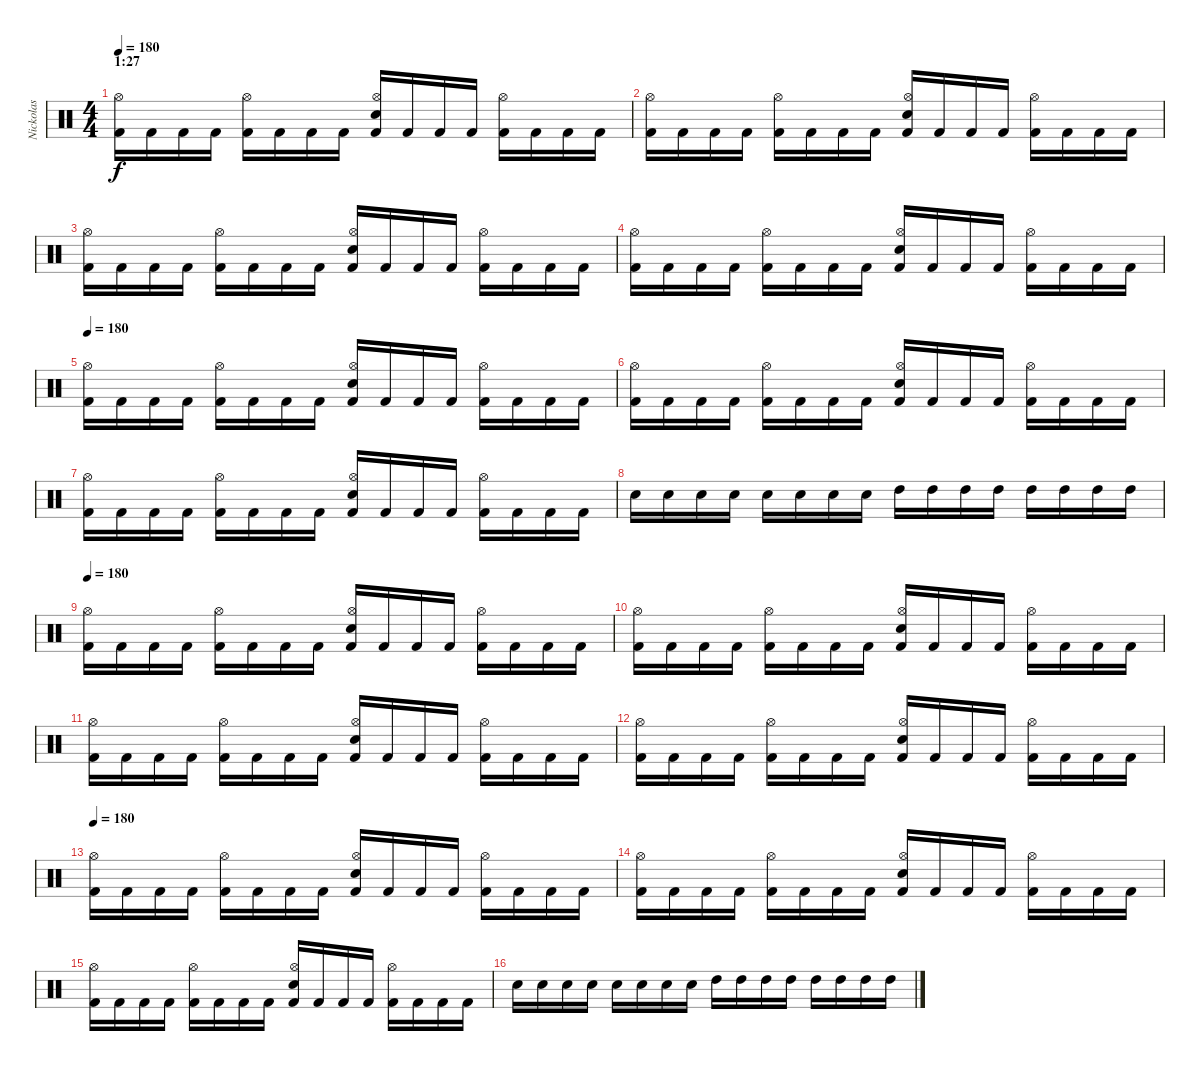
\track ("Nickolas " "Nickolas ") {instrument percussion}
\staff {score}
\articulation defaults
\ts (4 4)
\section ("" "1:27")
\tempo 180
\clef neutral
\ks c
("Kick (hit) 2" "Hi-Hat (open)").16{dy f} "Kick (hit) 2".16 "Kick (hit) 2".16 "Kick (hit) 2".16 ("Kick (hit) 2" "Hi-Hat (open)").16 "Kick (hit) 2".16 "Kick (hit) 2".16 "Kick (hit) 2".16 ("Kick (hit) 2" "Snare (hit) 2" "Hi-Hat (open)").16 "Kick (hit) 2".16 "Kick (hit) 2".16 "Kick (hit) 2".16 ("Kick (hit) 2" "Hi-Hat (open)").16 "Kick (hit) 2".16 "Kick (hit) 2".16 "Kick (hit) 2".16 |
("Kick (hit) 2" "Hi-Hat (open)").16 "Kick (hit) 2".16 "Kick (hit) 2".16 "Kick (hit) 2".16 ("Kick (hit) 2" "Hi-Hat (open)").16 "Kick (hit) 2".16 "Kick (hit) 2".16 "Kick (hit) 2".16 ("Kick (hit) 2" "Snare (hit) 2" "Hi-Hat (open)").16 "Kick (hit) 2".16 "Kick (hit) 2".16 "Kick (hit) 2".16 ("Kick (hit) 2" "Hi-Hat (open)").16 "Kick (hit) 2".16 "Kick (hit) 2".16 "Kick (hit) 2".16 |
("Kick (hit) 2" "Hi-Hat (open)").16 "Kick (hit) 2".16 "Kick (hit) 2".16 "Kick (hit) 2".16 ("Kick (hit) 2" "Hi-Hat (open)").16 "Kick (hit) 2".16 "Kick (hit) 2".16 "Kick (hit) 2".16 ("Kick (hit) 2" "Snare (hit) 2" "Hi-Hat (open)").16 "Kick (hit) 2".16 "Kick (hit) 2".16 "Kick (hit) 2".16 ("Kick (hit) 2" "Hi-Hat (open)").16 "Kick (hit) 2".16 "Kick (hit) 2".16 "Kick (hit) 2".16 |
("Kick (hit) 2" "Hi-Hat (open)").16 "Kick (hit) 2".16 "Kick (hit) 2".16 "Kick (hit) 2".16 ("Kick (hit) 2" "Hi-Hat (open)").16 "Kick (hit) 2".16 "Kick (hit) 2".16 "Kick (hit) 2".16 ("Kick (hit) 2" "Snare (hit) 2" "Hi-Hat (open)").16 "Kick (hit) 2".16 "Kick (hit) 2".16 "Kick (hit) 2".16 ("Kick (hit) 2" "Hi-Hat (open)").16 "Kick (hit) 2".16 "Kick (hit) 2".16 "Kick (hit) 2".16 |
\tempo 180
("Kick (hit) 2" "Hi-Hat (open)").16 "Kick (hit) 2".16 "Kick (hit) 2".16 "Kick (hit) 2".16 ("Kick (hit) 2" "Hi-Hat (open)").16 "Kick (hit) 2".16 "Kick (hit) 2".16 "Kick (hit) 2".16 ("Kick (hit) 2" "Snare (hit) 2" "Hi-Hat (open)").16 "Kick (hit) 2".16 "Kick (hit) 2".16 "Kick (hit) 2".16 ("Kick (hit) 2" "Hi-Hat (open)").16 "Kick (hit) 2".16 "Kick (hit) 2".16 "Kick (hit) 2".16 |
("Kick (hit) 2" "Hi-Hat (open)").16 "Kick (hit) 2".16 "Kick (hit) 2".16 "Kick (hit) 2".16 ("Kick (hit) 2" "Hi-Hat (open)").16 "Kick (hit) 2".16 "Kick (hit) 2".16 "Kick (hit) 2".16 ("Kick (hit) 2" "Snare (hit) 2" "Hi-Hat (open)").16 "Kick (hit) 2".16 "Kick (hit) 2".16 "Kick (hit) 2".16 ("Kick (hit) 2" "Hi-Hat (open)").16 "Kick (hit) 2".16 "Kick (hit) 2".16 "Kick (hit) 2".16 |
("Kick (hit) 2" "Hi-Hat (open)").16 "Kick (hit) 2".16 "Kick (hit) 2".16 "Kick (hit) 2".16 ("Kick (hit) 2" "Hi-Hat (open)").16 "Kick (hit) 2".16 "Kick (hit) 2".16 "Kick (hit) 2".16 ("Kick (hit) 2" "Snare (hit) 2" "Hi-Hat (open)").16 "Kick (hit) 2".16 "Kick (hit) 2".16 "Kick (hit) 2".16 ("Kick (hit) 2" "Hi-Hat (open)").16 "Kick (hit) 2".16 "Kick (hit) 2".16 "Kick (hit) 2".16 |
"Snare (hit) 2".16 "Snare (hit) 2".16 "Snare (hit) 2".16 "Snare (hit) 2".16 "Snare (hit) 2".16 "Snare (hit) 2".16 "Snare (hit) 2".16 "Snare (hit) 2".16 "High Tom (hit)".16 "High Tom (hit)".16 "High Tom (hit)".16 "High Tom (hit)".16 "High Tom (hit)".16 "High Tom (hit)".16 "High Tom (hit)".16 "High Tom (hit)".16 |
\tempo 180
("Kick (hit) 2" "Hi-Hat (open)").16 "Kick (hit) 2".16 "Kick (hit) 2".16 "Kick (hit) 2".16 ("Kick (hit) 2" "Hi-Hat (open)").16 "Kick (hit) 2".16 "Kick (hit) 2".16 "Kick (hit) 2".16 ("Kick (hit) 2" "Snare (hit) 2" "Hi-Hat (open)").16 "Kick (hit) 2".16 "Kick (hit) 2".16 "Kick (hit) 2".16 ("Kick (hit) 2" "Hi-Hat (open)").16 "Kick (hit) 2".16 "Kick (hit) 2".16 "Kick (hit) 2".16 |
("Kick (hit) 2" "Hi-Hat (open)").16 "Kick (hit) 2".16 "Kick (hit) 2".16 "Kick (hit) 2".16 ("Kick (hit) 2" "Hi-Hat (open)").16 "Kick (hit) 2".16 "Kick (hit) 2".16 "Kick (hit) 2".16 ("Kick (hit) 2" "Snare (hit) 2" "Hi-Hat (open)").16 "Kick (hit) 2".16 "Kick (hit) 2".16 "Kick (hit) 2".16 ("Kick (hit) 2" "Hi-Hat (open)").16 "Kick (hit) 2".16 "Kick (hit) 2".16 "Kick (hit) 2".16 |
("Kick (hit) 2" "Hi-Hat (open)").16 "Kick (hit) 2".16 "Kick (hit) 2".16 "Kick (hit) 2".16 ("Kick (hit) 2" "Hi-Hat (open)").16 "Kick (hit) 2".16 "Kick (hit) 2".16 "Kick (hit) 2".16 ("Kick (hit) 2" "Snare (hit) 2" "Hi-Hat (open)").16 "Kick (hit) 2".16 "Kick (hit) 2".16 "Kick (hit) 2".16 ("Kick (hit) 2" "Hi-Hat (open)").16 "Kick (hit) 2".16 "Kick (hit) 2".16 "Kick (hit) 2".16 |
("Kick (hit) 2" "Hi-Hat (open)").16 "Kick (hit) 2".16 "Kick (hit) 2".16 "Kick (hit) 2".16 ("Kick (hit) 2" "Hi-Hat (open)").16 "Kick (hit) 2".16 "Kick (hit) 2".16 "Kick (hit) 2".16 ("Kick (hit) 2" "Snare (hit) 2" "Hi-Hat (open)").16 "Kick (hit) 2".16 "Kick (hit) 2".16 "Kick (hit) 2".16 ("Kick (hit) 2" "Hi-Hat (open)").16 "Kick (hit) 2".16 "Kick (hit) 2".16 "Kick (hit) 2".16 |
\tempo 180
("Kick (hit) 2" "Hi-Hat (open)").16 "Kick (hit) 2".16 "Kick (hit) 2".16 "Kick (hit) 2".16 ("Kick (hit) 2" "Hi-Hat (open)").16 "Kick (hit) 2".16 "Kick (hit) 2".16 "Kick (hit) 2".16 ("Kick (hit) 2" "Snare (hit) 2" "Hi-Hat (open)").16 "Kick (hit) 2".16 "Kick (hit) 2".16 "Kick (hit) 2".16 ("Kick (hit) 2" "Hi-Hat (open)").16 "Kick (hit) 2".16 "Kick (hit) 2".16 "Kick (hit) 2".16 |
("Kick (hit) 2" "Hi-Hat (open)").16 "Kick (hit) 2".16 "Kick (hit) 2".16 "Kick (hit) 2".16 ("Kick (hit) 2" "Hi-Hat (open)").16 "Kick (hit) 2".16 "Kick (hit) 2".16 "Kick (hit) 2".16 ("Kick (hit) 2" "Snare (hit) 2" "Hi-Hat (open)").16 "Kick (hit) 2".16 "Kick (hit) 2".16 "Kick (hit) 2".16 ("Kick (hit) 2" "Hi-Hat (open)").16 "Kick (hit) 2".16 "Kick (hit) 2".16 "Kick (hit) 2".16 |
("Kick (hit) 2" "Hi-Hat (open)").16 "Kick (hit) 2".16 "Kick (hit) 2".16 "Kick (hit) 2".16 ("Kick (hit) 2" "Hi-Hat (open)").16 "Kick (hit) 2".16 "Kick (hit) 2".16 "Kick (hit) 2".16 ("Kick (hit) 2" "Snare (hit) 2" "Hi-Hat (open)").16 "Kick (hit) 2".16 "Kick (hit) 2".16 "Kick (hit) 2".16 ("Kick (hit) 2" "Hi-Hat (open)").16 "Kick (hit) 2".16 "Kick (hit) 2".16 "Kick (hit) 2".16 |
"Snare (hit) 2".16 "Snare (hit) 2".16 "Snare (hit) 2".16 "Snare (hit) 2".16 "Snare (hit) 2".16 "Snare (hit) 2".16 "Snare (hit) 2".16 "Snare (hit) 2".16 "High Tom (hit)".16 "High Tom (hit)".16 "High Tom (hit)".16 "High Tom (hit)".16 "High Tom (hit)".16 "High Tom (hit)".16 "High Tom (hit)".16 "High Tom (hit)".16
